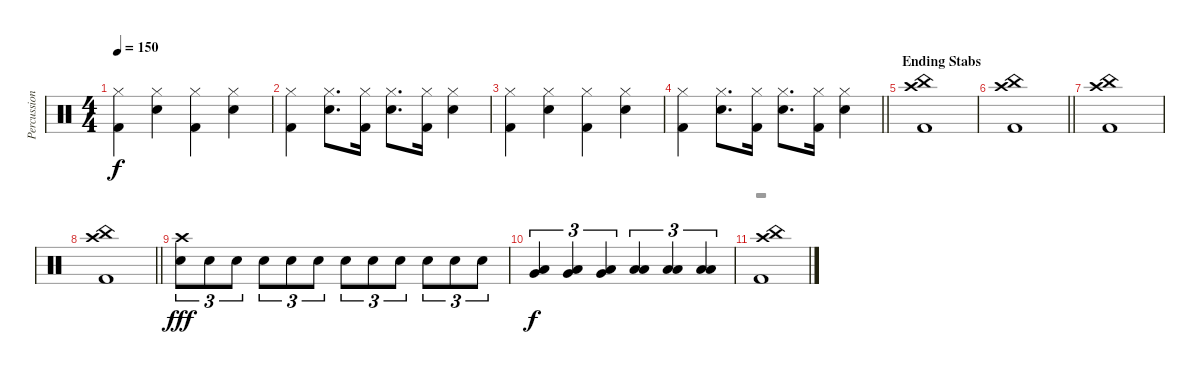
\track ("Percussion" "Percussion") {instrument percussion}
\staff {score}
\articulation defaults
\voice
\ts (4 4)
\tempo 150
\clef neutral
\ks c
("Kick (hit) 2" "Hi-Hat (closed)").4{dy f} ("Snare (hit) 2" "Hi-Hat (closed)").4 ("Kick (hit) 2" "Hi-Hat (closed)").4 ("Snare (hit) 2" "Hi-Hat (closed)").4 |
("Kick (hit) 2" "Hi-Hat (closed)").4 ("Snare (hit) 2" "Hi-Hat (closed)").8{d} ("Kick (hit) 2" "Hi-Hat (closed)").16 ("Snare (hit) 2" "Hi-Hat (closed)").8{d} ("Kick (hit) 2" "Hi-Hat (closed)").16 ("Snare (hit) 2" "Hi-Hat (closed)").4 |
("Kick (hit) 2" "Hi-Hat (closed)").4 ("Snare (hit) 2" "Hi-Hat (closed)").4 ("Kick (hit) 2" "Hi-Hat (closed)").4 ("Snare (hit) 2" "Hi-Hat (closed)").4 |
\barLineRight lightlight
("Kick (hit) 2" "Hi-Hat (closed)").4 ("Snare (hit) 2" "Hi-Hat (closed)").8{d} ("Kick (hit) 2" "Hi-Hat (closed)").16 ("Snare (hit) 2" "Hi-Hat (closed)").8{d} ("Kick (hit) 2" "Hi-Hat (closed)").16 ("Snare (hit) 2" "Hi-Hat (closed)").4 |
\section ("" "Ending Stabs")
("China (hit)" "Kick (hit) 2" "Crash high (hit)").1 |
\barLineRight lightlight
("China (hit)" "Kick (hit) 2" "Crash high (hit)").1 |
("China (hit)" "Kick (hit) 2" "Crash high (hit)").1 |
\barLineRight lightlight
("China (hit)" "Kick (hit) 2" "Crash high (hit)").1 |
("Crash high (hit)" "Snare (hit) 2").8{tu (3 2) dy fff} "Snare (hit) 2".8{tu (3 2)} "Snare (hit) 2".8{tu (3 2)} "Snare (hit) 2".8{tu (3 2)} "Snare (hit) 2".8{tu (3 2)} "Snare (hit) 2".8{tu (3 2)} "Snare (hit) 2".8{tu (3 2)} "Snare (hit) 2".8{tu (3 2)} "Snare (hit) 2".8{tu (3 2)} "Snare (hit) 2".8{tu (3 2)} "Snare (hit) 2".8{tu (3 2)} "Snare (hit) 2".8{tu (3 2)} |
("Very Low Tom (hit)" "Low Floor Tom (hit)").4{tu (3 2) dy f} ("Very Low Tom (hit)" "Low Floor Tom (hit)").4{tu (3 2)} ("Very Low Tom (hit)" "Low Floor Tom (hit)").4{tu (3 2)} ("Low Floor Tom (hit)" "Low Tom (hit)").4{tu (3 2)} ("Low Floor Tom (hit)" "Low Tom (hit)").4{tu (3 2)} ("Low Floor Tom (hit)" "Low Tom (hit)").4{tu (3 2)} |
("China (hit)" "Kick (hit) 2" "Crash high (hit)").1 |
|
|
\voice
\clef neutral
\ottava regular
\simile none
\ks c
|
|
|
\barLineRight lightlight
|
|
\barLineRight lightlight
|
|
\barLineRight lightlight
|
|
|
r.1 |
|
|
